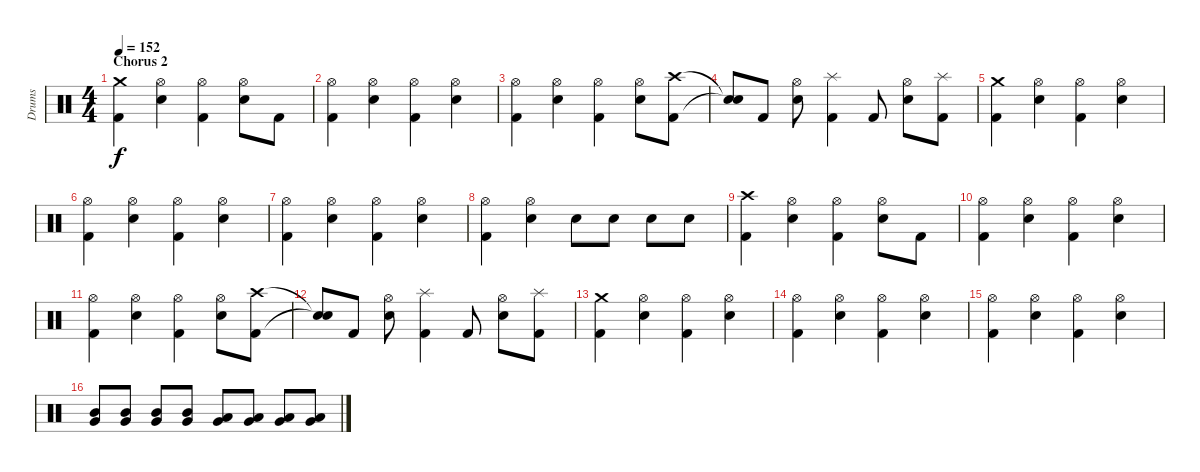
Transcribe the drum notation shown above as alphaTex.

\track ("Drums" "Drums") {instrument percussion}
\staff {score}
\articulation defaults
\ts (4 4)
\section ("" "Chorus 2")
\tempo 152
\clef neutral
\ks c
("Crash medium (hit)" "Kick (hit) 2").4{dy f} ("Hi-Hat (open)" "Snare (hit) 2").4 ("Hi-Hat (open)" "Kick (hit) 2").4 ("Hi-Hat (open)" "Snare (hit) 2").8 "Kick (hit) 2".8 |
("Hi-Hat (open)" "Kick (hit) 2").4 ("Hi-Hat (open)" "Snare (hit) 2").4 ("Hi-Hat (open)" "Kick (hit) 2").4 ("Hi-Hat (open)" "Snare (hit) 2").4 |
("Hi-Hat (open)" "Kick (hit) 2").4 ("Hi-Hat (open)" "Snare (hit) 2").4 ("Hi-Hat (open)" "Kick (hit) 2").4 ("Hi-Hat (open)" "Snare (hit) 2").8 ("Crash high (hit)" "Kick (hit) 2").8 |
("Snare (hit)"{t} "Snare (hit)"{t}).8 "Kick (hit) 2".8 ("Hi-Hat (open)" "Snare (hit) 2").8 ("Splash (hit)" "Kick (hit) 2").4 "Kick (hit) 2".8 ("Hi-Hat (open)" "Snare (hit) 2").8 ("Splash (hit)" "Kick (hit) 2").8 |
("Crash medium (hit)" "Kick (hit) 2").4 ("Hi-Hat (open)" "Snare (hit) 2").4 ("Hi-Hat (open)" "Kick (hit) 2").4 ("Hi-Hat (open)" "Snare (hit) 2").4 |
("Hi-Hat (open)" "Kick (hit) 2").4 ("Hi-Hat (open)" "Snare (hit) 2").4 ("Hi-Hat (open)" "Kick (hit) 2").4 ("Hi-Hat (open)" "Snare (hit) 2").4 |
("Hi-Hat (open)" "Kick (hit) 2").4 ("Hi-Hat (open)" "Snare (hit) 2").4 ("Hi-Hat (open)" "Kick (hit) 2").4 ("Hi-Hat (open)" "Snare (hit) 2").4 |
("Hi-Hat (open)" "Kick (hit) 2").4 ("Hi-Hat (open)" "Snare (hit) 2").4 "Snare (hit) 2".8 "Snare (hit) 2".8 "Snare (hit) 2".8 "Snare (hit) 2".8 |
("Crash high (hit)" "Kick (hit) 2").4 ("Hi-Hat (open)" "Snare (hit) 2").4 ("Hi-Hat (open)" "Kick (hit) 2").4 ("Hi-Hat (open)" "Snare (hit) 2").8 "Kick (hit) 2".8 |
("Hi-Hat (open)" "Kick (hit) 2").4 ("Hi-Hat (open)" "Snare (hit) 2").4 ("Hi-Hat (open)" "Kick (hit) 2").4 ("Hi-Hat (open)" "Snare (hit) 2").4 |
("Hi-Hat (open)" "Kick (hit) 2").4 ("Hi-Hat (open)" "Snare (hit) 2").4 ("Hi-Hat (open)" "Kick (hit) 2").4 ("Hi-Hat (open)" "Snare (hit) 2").8 ("Crash high (hit)" "Kick (hit) 2").8 |
("Snare (hit)"{t} "Snare (hit)"{t}).8 "Kick (hit) 2".8 ("Hi-Hat (open)" "Snare (hit) 2").8 ("Splash (hit)" "Kick (hit) 2").4 "Kick (hit) 2".8 ("Hi-Hat (open)" "Snare (hit) 2").8 ("Splash (hit)" "Kick (hit) 2").8 |
("Crash medium (hit)" "Kick (hit) 2").4 ("Hi-Hat (open)" "Snare (hit) 2").4 ("Hi-Hat (open)" "Kick (hit) 2").4 ("Hi-Hat (open)" "Snare (hit) 2").4 |
("Hi-Hat (open)" "Kick (hit) 2").4 ("Hi-Hat (open)" "Snare (hit) 2").4 ("Hi-Hat (open)" "Kick (hit) 2").4 ("Hi-Hat (open)" "Snare (hit) 2").4 |
("Hi-Hat (open)" "Kick (hit) 2").4 ("Hi-Hat (open)" "Snare (hit) 2").4 ("Hi-Hat (open)" "Kick (hit) 2").4 ("Hi-Hat (open)" "Snare (hit) 2").4 |
("Mid Tom (hit)" "Very Low Tom (hit)").8 ("Mid Tom (hit)" "Very Low Tom (hit)").8 ("Mid Tom (hit)" "Very Low Tom (hit)").8 ("Mid Tom (hit)" "Very Low Tom (hit)").8 ("Low Tom (hit)" "Very Low Tom (hit)").8 ("Low Tom (hit)" "Very Low Tom (hit)").8 ("Low Tom (hit)" "Very Low Tom (hit)").8 ("Low Tom (hit)" "Very Low Tom (hit)").8
